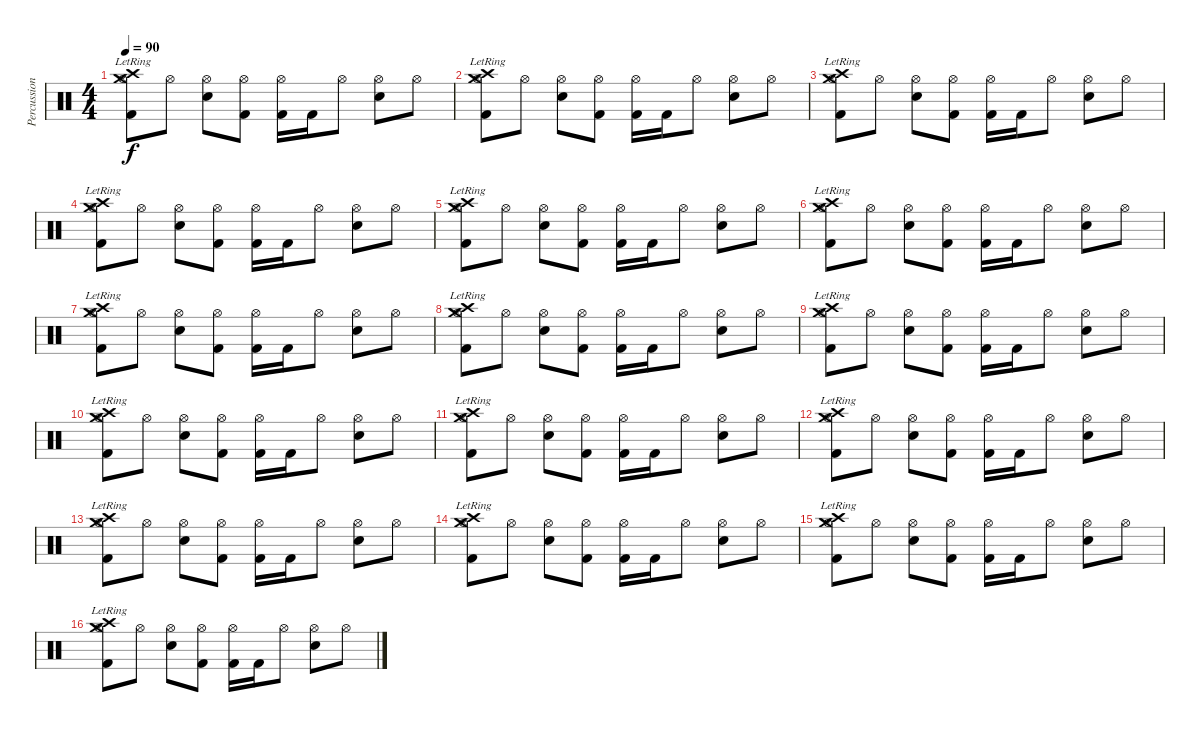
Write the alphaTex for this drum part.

\track ("Percussions" "Percussion") {instrument percussion}
\staff {score}
\articulation defaults
\ts (4 4)
\tempo 90
\clef neutral
\ks c
("Kick (hit) 2" "Hi-Hat (open)" "Crash medium (hit)"{lr} "Crash high (hit)").8{dy f} "Hi-Hat (open)".8 ("Snare (hit) 2" "Hi-Hat (open)").8 ("Kick (hit) 2" "Hi-Hat (open)").8 ("Kick (hit) 2" "Hi-Hat (open)").16 "Kick (hit) 2".16 "Hi-Hat (open)".8 ("Snare (hit) 2" "Hi-Hat (open)").8 "Hi-Hat (open)".8 |
("Kick (hit) 2" "Hi-Hat (open)" "Crash medium (hit)"{lr} "Crash high (hit)").8 "Hi-Hat (open)".8 ("Snare (hit) 2" "Hi-Hat (open)").8 ("Kick (hit) 2" "Hi-Hat (open)").8 ("Kick (hit) 2" "Hi-Hat (open)").16 "Kick (hit) 2".16 "Hi-Hat (open)".8 ("Snare (hit) 2" "Hi-Hat (open)").8 "Hi-Hat (open)".8 |
("Kick (hit) 2" "Hi-Hat (open)" "Crash medium (hit)"{lr} "Crash high (hit)").8 "Hi-Hat (open)".8 ("Snare (hit) 2" "Hi-Hat (open)").8 ("Kick (hit) 2" "Hi-Hat (open)").8 ("Kick (hit) 2" "Hi-Hat (open)").16 "Kick (hit) 2".16 "Hi-Hat (open)".8 ("Snare (hit) 2" "Hi-Hat (open)").8 "Hi-Hat (open)".8 |
("Kick (hit) 2" "Hi-Hat (open)" "Crash medium (hit)"{lr} "Crash high (hit)").8 "Hi-Hat (open)".8 ("Snare (hit) 2" "Hi-Hat (open)").8 ("Kick (hit) 2" "Hi-Hat (open)").8 ("Kick (hit) 2" "Hi-Hat (open)").16 "Kick (hit) 2".16 "Hi-Hat (open)".8 ("Snare (hit) 2" "Hi-Hat (open)").8 "Hi-Hat (open)".8 |
("Kick (hit) 2" "Hi-Hat (open)" "Crash medium (hit)"{lr} "Crash high (hit)").8 "Hi-Hat (open)".8 ("Snare (hit) 2" "Hi-Hat (open)").8 ("Kick (hit) 2" "Hi-Hat (open)").8 ("Kick (hit) 2" "Hi-Hat (open)").16 "Kick (hit) 2".16 "Hi-Hat (open)".8 ("Snare (hit) 2" "Hi-Hat (open)").8 "Hi-Hat (open)".8 |
("Kick (hit) 2" "Hi-Hat (open)" "Crash medium (hit)"{lr} "Crash high (hit)").8 "Hi-Hat (open)".8 ("Snare (hit) 2" "Hi-Hat (open)").8 ("Kick (hit) 2" "Hi-Hat (open)").8 ("Kick (hit) 2" "Hi-Hat (open)").16 "Kick (hit) 2".16 "Hi-Hat (open)".8 ("Snare (hit) 2" "Hi-Hat (open)").8 "Hi-Hat (open)".8 |
("Kick (hit) 2" "Hi-Hat (open)" "Crash medium (hit)"{lr} "Crash high (hit)").8 "Hi-Hat (open)".8 ("Snare (hit) 2" "Hi-Hat (open)").8 ("Kick (hit) 2" "Hi-Hat (open)").8 ("Kick (hit) 2" "Hi-Hat (open)").16 "Kick (hit) 2".16 "Hi-Hat (open)".8 ("Snare (hit) 2" "Hi-Hat (open)").8 "Hi-Hat (open)".8 |
("Kick (hit) 2" "Hi-Hat (open)" "Crash medium (hit)"{lr} "Crash high (hit)").8 "Hi-Hat (open)".8 ("Snare (hit) 2" "Hi-Hat (open)").8 ("Kick (hit) 2" "Hi-Hat (open)").8 ("Kick (hit) 2" "Hi-Hat (open)").16 "Kick (hit) 2".16 "Hi-Hat (open)".8 ("Snare (hit) 2" "Hi-Hat (open)").8 "Hi-Hat (open)".8 |
("Kick (hit) 2" "Hi-Hat (open)" "Crash medium (hit)"{lr} "Crash high (hit)").8 "Hi-Hat (open)".8 ("Snare (hit) 2" "Hi-Hat (open)").8 ("Kick (hit) 2" "Hi-Hat (open)").8 ("Kick (hit) 2" "Hi-Hat (open)").16 "Kick (hit) 2".16 "Hi-Hat (open)".8 ("Snare (hit) 2" "Hi-Hat (open)").8 "Hi-Hat (open)".8 |
("Kick (hit) 2" "Hi-Hat (open)" "Crash medium (hit)"{lr} "Crash high (hit)").8 "Hi-Hat (open)".8 ("Snare (hit) 2" "Hi-Hat (open)").8 ("Kick (hit) 2" "Hi-Hat (open)").8 ("Kick (hit) 2" "Hi-Hat (open)").16 "Kick (hit) 2".16 "Hi-Hat (open)".8 ("Snare (hit) 2" "Hi-Hat (open)").8 "Hi-Hat (open)".8 |
("Kick (hit) 2" "Hi-Hat (open)" "Crash medium (hit)"{lr} "Crash high (hit)").8 "Hi-Hat (open)".8 ("Snare (hit) 2" "Hi-Hat (open)").8 ("Kick (hit) 2" "Hi-Hat (open)").8 ("Kick (hit) 2" "Hi-Hat (open)").16 "Kick (hit) 2".16 "Hi-Hat (open)".8 ("Snare (hit) 2" "Hi-Hat (open)").8 "Hi-Hat (open)".8 |
("Kick (hit) 2" "Hi-Hat (open)" "Crash medium (hit)"{lr} "Crash high (hit)").8 "Hi-Hat (open)".8 ("Snare (hit) 2" "Hi-Hat (open)").8 ("Kick (hit) 2" "Hi-Hat (open)").8 ("Kick (hit) 2" "Hi-Hat (open)").16 "Kick (hit) 2".16 "Hi-Hat (open)".8 ("Snare (hit) 2" "Hi-Hat (open)").8 "Hi-Hat (open)".8 |
("Kick (hit) 2" "Hi-Hat (open)" "Crash medium (hit)"{lr} "Crash high (hit)").8 "Hi-Hat (open)".8 ("Snare (hit) 2" "Hi-Hat (open)").8 ("Kick (hit) 2" "Hi-Hat (open)").8 ("Kick (hit) 2" "Hi-Hat (open)").16 "Kick (hit) 2".16 "Hi-Hat (open)".8 ("Snare (hit) 2" "Hi-Hat (open)").8 "Hi-Hat (open)".8 |
("Kick (hit) 2" "Hi-Hat (open)" "Crash medium (hit)"{lr} "Crash high (hit)").8 "Hi-Hat (open)".8 ("Snare (hit) 2" "Hi-Hat (open)").8 ("Kick (hit) 2" "Hi-Hat (open)").8 ("Kick (hit) 2" "Hi-Hat (open)").16 "Kick (hit) 2".16 "Hi-Hat (open)".8 ("Snare (hit) 2" "Hi-Hat (open)").8 "Hi-Hat (open)".8 |
("Kick (hit) 2" "Hi-Hat (open)" "Crash medium (hit)"{lr} "Crash high (hit)").8 "Hi-Hat (open)".8 ("Snare (hit) 2" "Hi-Hat (open)").8 ("Kick (hit) 2" "Hi-Hat (open)").8 ("Kick (hit) 2" "Hi-Hat (open)").16 "Kick (hit) 2".16 "Hi-Hat (open)".8 ("Snare (hit) 2" "Hi-Hat (open)").8 "Hi-Hat (open)".8 |
("Kick (hit) 2" "Hi-Hat (open)" "Crash medium (hit)"{lr} "Crash high (hit)").8 "Hi-Hat (open)".8 ("Snare (hit) 2" "Hi-Hat (open)").8 ("Kick (hit) 2" "Hi-Hat (open)").8 ("Kick (hit) 2" "Hi-Hat (open)").16 "Kick (hit) 2".16 "Hi-Hat (open)".8 ("Snare (hit) 2" "Hi-Hat (open)").8 "Hi-Hat (open)".8
